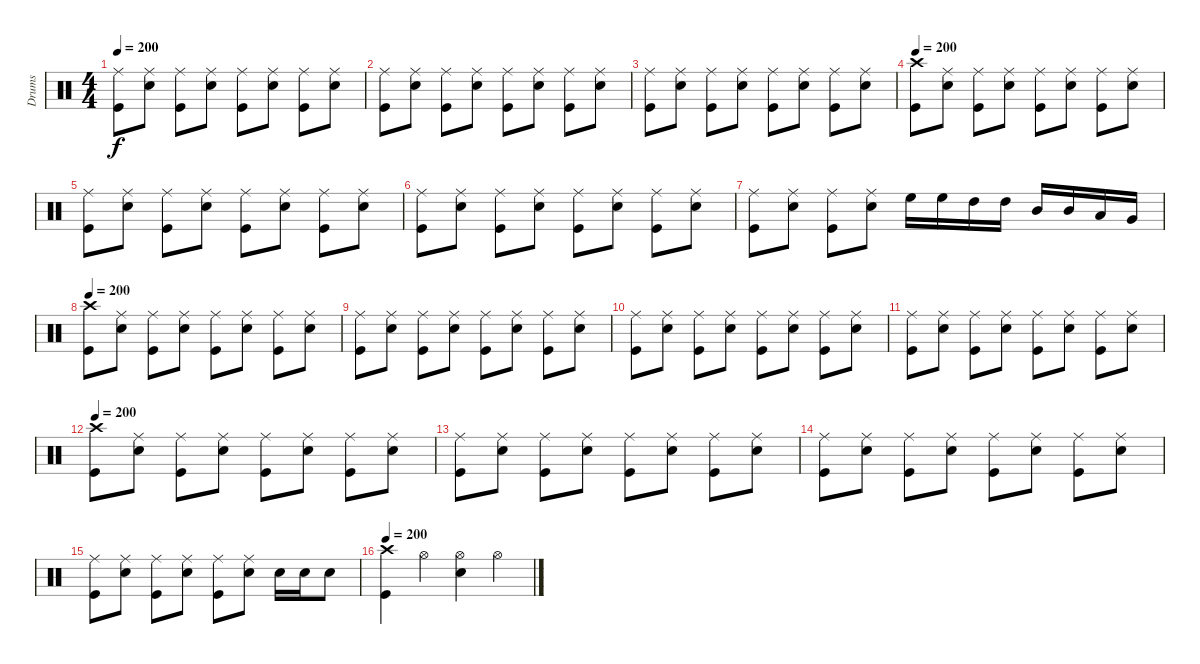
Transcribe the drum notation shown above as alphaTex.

\track ("Drums" "Drums") {instrument percussion}
\staff {score}
\articulation defaults
\ts (4 4)
\tempo 200
\clef neutral
\ks c
("Ride (middle)" "Kick (hit)").8{dy f} ("Ride (middle)" "Snare (hit) 2").8 ("Ride (middle)" "Kick (hit)").8 ("Ride (middle)" "Snare (hit) 2").8 ("Ride (middle)" "Kick (hit)").8 ("Ride (middle)" "Snare (hit) 2").8 ("Ride (middle)" "Kick (hit)").8 ("Ride (middle)" "Snare (hit) 2").8 |
("Ride (middle)" "Kick (hit)").8 ("Ride (middle)" "Snare (hit) 2").8 ("Ride (middle)" "Kick (hit)").8 ("Ride (middle)" "Snare (hit) 2").8 ("Ride (middle)" "Kick (hit)").8 ("Ride (middle)" "Snare (hit) 2").8 ("Ride (middle)" "Kick (hit)").8 ("Ride (middle)" "Snare (hit) 2").8 |
("Ride (middle)" "Kick (hit)").8 ("Ride (middle)" "Snare (hit) 2").8 ("Ride (middle)" "Kick (hit)").8 ("Ride (middle)" "Snare (hit) 2").8 ("Ride (middle)" "Kick (hit)").8 ("Ride (middle)" "Snare (hit) 2").8 ("Ride (middle)" "Kick (hit)").8 ("Ride (middle)" "Snare (hit) 2").8 |
\tempo 200
("Crash high (hit)" "Kick (hit)").8 ("Ride (middle)" "Snare (hit) 2").8 ("Ride (middle)" "Kick (hit)").8 ("Ride (middle)" "Snare (hit) 2").8 ("Ride (middle)" "Kick (hit)").8 ("Ride (middle)" "Snare (hit) 2").8 ("Ride (middle)" "Kick (hit)").8 ("Ride (middle)" "Snare (hit) 2").8 |
("Ride (middle)" "Kick (hit)").8 ("Ride (middle)" "Snare (hit) 2").8 ("Ride (middle)" "Kick (hit)").8 ("Ride (middle)" "Snare (hit) 2").8 ("Ride (middle)" "Kick (hit)").8 ("Ride (middle)" "Snare (hit) 2").8 ("Ride (middle)" "Kick (hit)").8 ("Ride (middle)" "Snare (hit) 2").8 |
("Ride (middle)" "Kick (hit)").8 ("Ride (middle)" "Snare (hit) 2").8 ("Ride (middle)" "Kick (hit)").8 ("Ride (middle)" "Snare (hit) 2").8 ("Ride (middle)" "Kick (hit)").8 ("Ride (middle)" "Snare (hit) 2").8 ("Ride (middle)" "Kick (hit)").8 ("Ride (middle)" "Snare (hit) 2").8 |
("Ride (middle)" "Kick (hit)").8 ("Ride (middle)" "Snare (hit) 2").8 ("Ride (middle)" "Kick (hit)").8 ("Ride (middle)" "Snare (hit) 2").8 "High Floor Tom (hit)".16 "High Floor Tom (hit)".16 "High Tom (hit)".16 "High Tom (hit)".16 "Mid Tom (hit)".16 "Mid Tom (hit)".16 "Low Tom (hit)".16 "Very Low Tom (hit)".16 |
\tempo 200
("Crash high (hit)" "Kick (hit)").8 ("Ride (middle)" "Snare (hit) 2").8 ("Ride (middle)" "Kick (hit)").8 ("Ride (middle)" "Snare (hit) 2").8 ("Ride (middle)" "Kick (hit)").8 ("Ride (middle)" "Snare (hit) 2").8 ("Ride (middle)" "Kick (hit)").8 ("Ride (middle)" "Snare (hit) 2").8 |
("Ride (middle)" "Kick (hit)").8 ("Ride (middle)" "Snare (hit) 2").8 ("Ride (middle)" "Kick (hit)").8 ("Ride (middle)" "Snare (hit) 2").8 ("Ride (middle)" "Kick (hit)").8 ("Ride (middle)" "Snare (hit) 2").8 ("Ride (middle)" "Kick (hit)").8 ("Ride (middle)" "Snare (hit) 2").8 |
("Ride (middle)" "Kick (hit)").8 ("Ride (middle)" "Snare (hit) 2").8 ("Ride (middle)" "Kick (hit)").8 ("Ride (middle)" "Snare (hit) 2").8 ("Ride (middle)" "Kick (hit)").8 ("Ride (middle)" "Snare (hit) 2").8 ("Ride (middle)" "Kick (hit)").8 ("Ride (middle)" "Snare (hit) 2").8 |
("Ride (middle)" "Kick (hit)").8 ("Ride (middle)" "Snare (hit) 2").8 ("Ride (middle)" "Kick (hit)").8 ("Ride (middle)" "Snare (hit) 2").8 ("Ride (middle)" "Kick (hit)").8 ("Ride (middle)" "Snare (hit) 2").8 ("Ride (middle)" "Kick (hit)").8 ("Ride (middle)" "Snare (hit) 2").8 |
\tempo 200
("Crash high (hit)" "Kick (hit)").8 ("Ride (middle)" "Snare (hit) 2").8 ("Ride (middle)" "Kick (hit)").8 ("Ride (middle)" "Snare (hit) 2").8 ("Ride (middle)" "Kick (hit)").8 ("Ride (middle)" "Snare (hit) 2").8 ("Ride (middle)" "Kick (hit)").8 ("Ride (middle)" "Snare (hit) 2").8 |
("Ride (middle)" "Kick (hit)").8 ("Ride (middle)" "Snare (hit) 2").8 ("Ride (middle)" "Kick (hit)").8 ("Ride (middle)" "Snare (hit) 2").8 ("Ride (middle)" "Kick (hit)").8 ("Ride (middle)" "Snare (hit) 2").8 ("Ride (middle)" "Kick (hit)").8 ("Ride (middle)" "Snare (hit) 2").8 |
("Ride (middle)" "Kick (hit)").8 ("Ride (middle)" "Snare (hit) 2").8 ("Ride (middle)" "Kick (hit)").8 ("Ride (middle)" "Snare (hit) 2").8 ("Ride (middle)" "Kick (hit)").8 ("Ride (middle)" "Snare (hit) 2").8 ("Ride (middle)" "Kick (hit)").8 ("Ride (middle)" "Snare (hit) 2").8 |
("Ride (middle)" "Kick (hit)").8 ("Ride (middle)" "Snare (hit) 2").8 ("Ride (middle)" "Kick (hit)").8 ("Ride (middle)" "Snare (hit) 2").8 ("Ride (middle)" "Kick (hit)").8 ("Ride (middle)" "Snare (hit) 2").8 "Snare (hit) 2".16 "Snare (hit) 2".16 "Snare (hit) 2".8 |
\tempo 200
("Crash high (hit)" "Kick (hit)").4 "Hi-Hat (open)".4 ("Hi-Hat (open)" "Snare (hit) 2").4 "Hi-Hat (open)".4
